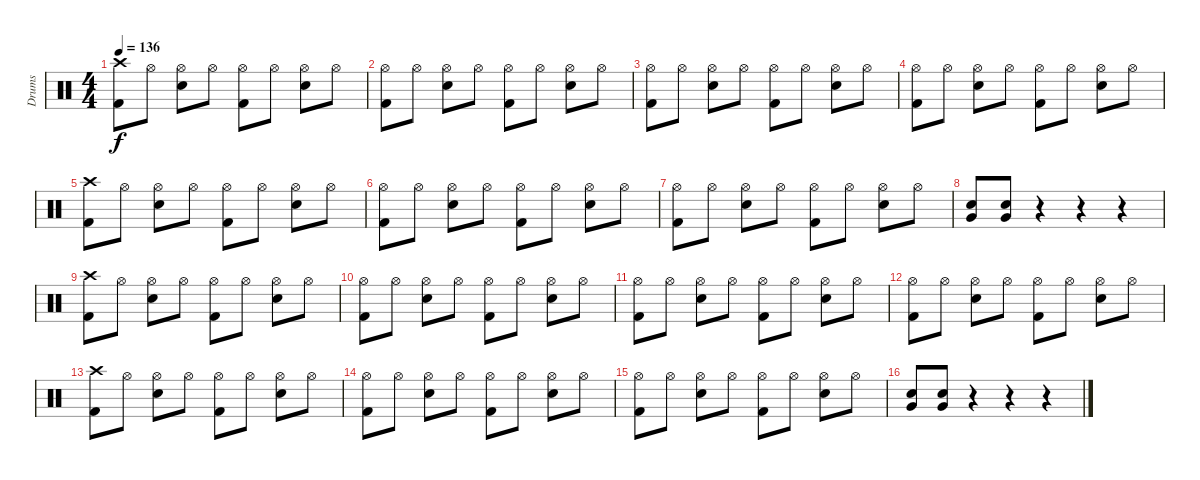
\track ("Drums" "Drums") {instrument percussion}
\staff {score}
\articulation defaults
\ts (4 4)
\tempo 136
\clef neutral
\ks c
("Crash high (hit)" "Kick (hit) 2").8{dy f} "Hi-Hat (open)".8 ("Hi-Hat (open)" "Snare (hit) 2").8 "Hi-Hat (open)".8 ("Hi-Hat (open)" "Kick (hit) 2").8 "Hi-Hat (open)".8 ("Hi-Hat (open)" "Snare (hit) 2").8 "Hi-Hat (open)".8 |
("Hi-Hat (open)" "Kick (hit) 2").8 "Hi-Hat (open)".8 ("Hi-Hat (open)" "Snare (hit) 2").8 "Hi-Hat (open)".8 ("Hi-Hat (open)" "Kick (hit) 2").8 "Hi-Hat (open)".8 ("Hi-Hat (open)" "Snare (hit) 2").8 "Hi-Hat (open)".8 |
("Hi-Hat (open)" "Kick (hit) 2").8 "Hi-Hat (open)".8 ("Hi-Hat (open)" "Snare (hit) 2").8 "Hi-Hat (open)".8 ("Hi-Hat (open)" "Kick (hit) 2").8 "Hi-Hat (open)".8 ("Hi-Hat (open)" "Snare (hit) 2").8 "Hi-Hat (open)".8 |
("Hi-Hat (open)" "Kick (hit) 2").8 "Hi-Hat (open)".8 ("Hi-Hat (open)" "Snare (hit) 2").8 "Hi-Hat (open)".8 ("Hi-Hat (open)" "Kick (hit) 2").8 "Hi-Hat (open)".8 ("Hi-Hat (open)" "Snare (hit) 2").8 "Hi-Hat (open)".8 |
("Crash high (hit)" "Kick (hit) 2").8 "Hi-Hat (open)".8 ("Hi-Hat (open)" "Snare (hit) 2").8 "Hi-Hat (open)".8 ("Hi-Hat (open)" "Kick (hit) 2").8 "Hi-Hat (open)".8 ("Hi-Hat (open)" "Snare (hit) 2").8 "Hi-Hat (open)".8 |
("Hi-Hat (open)" "Kick (hit) 2").8 "Hi-Hat (open)".8 ("Hi-Hat (open)" "Snare (hit) 2").8 "Hi-Hat (open)".8 ("Hi-Hat (open)" "Kick (hit) 2").8 "Hi-Hat (open)".8 ("Hi-Hat (open)" "Snare (hit) 2").8 "Hi-Hat (open)".8 |
("Hi-Hat (open)" "Kick (hit) 2").8 "Hi-Hat (open)".8 ("Hi-Hat (open)" "Snare (hit) 2").8 "Hi-Hat (open)".8 ("Hi-Hat (open)" "Kick (hit) 2").8 "Hi-Hat (open)".8 ("Hi-Hat (open)" "Snare (hit) 2").8 "Hi-Hat (open)".8 |
("Very Low Tom (hit)" "Snare (hit) 2").8 ("Very Low Tom (hit)" "Snare (hit) 2").8 r.4 r.4 r.4 |
("Crash high (hit)" "Kick (hit) 2").8 "Hi-Hat (open)".8 ("Hi-Hat (open)" "Snare (hit) 2").8 "Hi-Hat (open)".8 ("Hi-Hat (open)" "Kick (hit) 2").8 "Hi-Hat (open)".8 ("Hi-Hat (open)" "Snare (hit) 2").8 "Hi-Hat (open)".8 |
("Hi-Hat (open)" "Kick (hit) 2").8 "Hi-Hat (open)".8 ("Hi-Hat (open)" "Snare (hit) 2").8 "Hi-Hat (open)".8 ("Hi-Hat (open)" "Kick (hit) 2").8 "Hi-Hat (open)".8 ("Hi-Hat (open)" "Snare (hit) 2").8 "Hi-Hat (open)".8 |
("Hi-Hat (open)" "Kick (hit) 2").8 "Hi-Hat (open)".8 ("Hi-Hat (open)" "Snare (hit) 2").8 "Hi-Hat (open)".8 ("Hi-Hat (open)" "Kick (hit) 2").8 "Hi-Hat (open)".8 ("Hi-Hat (open)" "Snare (hit) 2").8 "Hi-Hat (open)".8 |
("Hi-Hat (open)" "Kick (hit) 2").8 "Hi-Hat (open)".8 ("Hi-Hat (open)" "Snare (hit) 2").8 "Hi-Hat (open)".8 ("Hi-Hat (open)" "Kick (hit) 2").8 "Hi-Hat (open)".8 ("Hi-Hat (open)" "Snare (hit) 2").8 "Hi-Hat (open)".8 |
("Crash high (hit)" "Kick (hit) 2").8 "Hi-Hat (open)".8 ("Hi-Hat (open)" "Snare (hit) 2").8 "Hi-Hat (open)".8 ("Hi-Hat (open)" "Kick (hit) 2").8 "Hi-Hat (open)".8 ("Hi-Hat (open)" "Snare (hit) 2").8 "Hi-Hat (open)".8 |
("Hi-Hat (open)" "Kick (hit) 2").8 "Hi-Hat (open)".8 ("Hi-Hat (open)" "Snare (hit) 2").8 "Hi-Hat (open)".8 ("Hi-Hat (open)" "Kick (hit) 2").8 "Hi-Hat (open)".8 ("Hi-Hat (open)" "Snare (hit) 2").8 "Hi-Hat (open)".8 |
("Hi-Hat (open)" "Kick (hit) 2").8 "Hi-Hat (open)".8 ("Hi-Hat (open)" "Snare (hit) 2").8 "Hi-Hat (open)".8 ("Hi-Hat (open)" "Kick (hit) 2").8 "Hi-Hat (open)".8 ("Hi-Hat (open)" "Snare (hit) 2").8 "Hi-Hat (open)".8 |
("Very Low Tom (hit)" "Snare (hit) 2").8 ("Very Low Tom (hit)" "Snare (hit) 2").8 r.4 r.4 r.4
